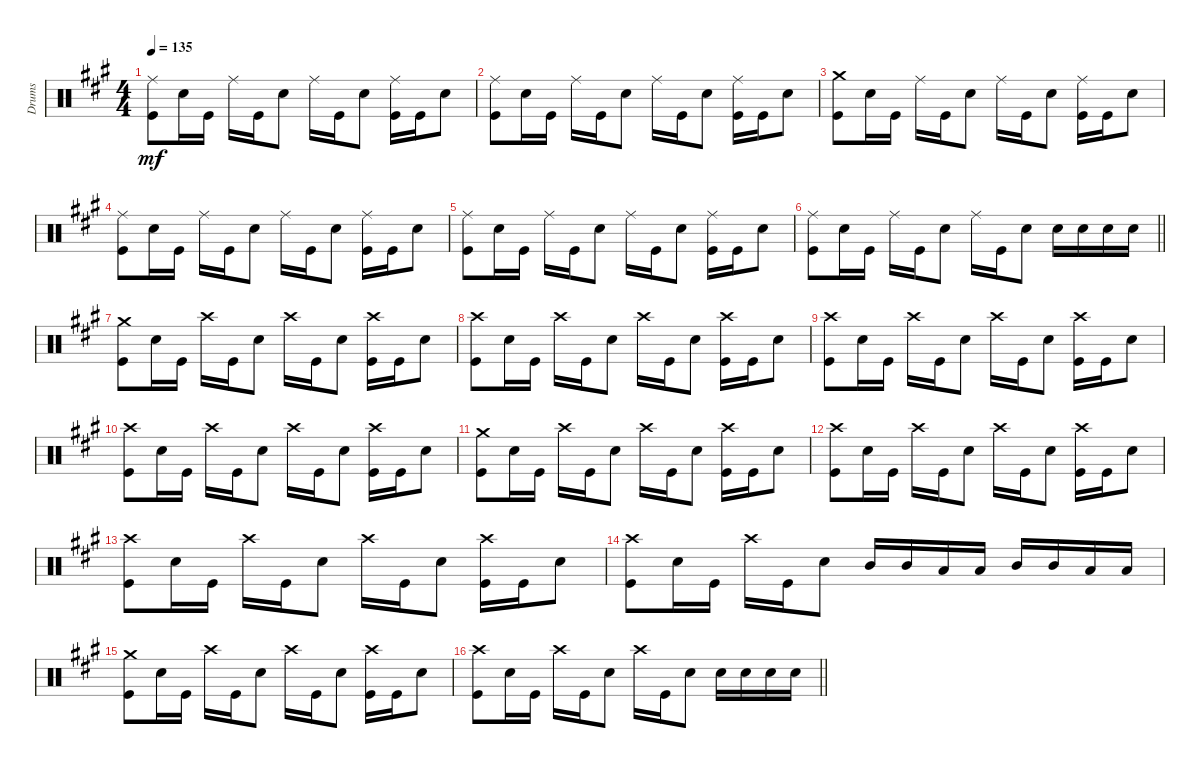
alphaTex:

\track ("Drums" "Drums") {instrument percussion}
\staff {score}
\articulation defaults
\ts (4 4)
\tempo 135
\clef neutral
\ks a
("Kick (hit)" "Ride (middle)").8{dy mf} "Snare (hit) 2".16 "Kick (hit)".16 "Ride (middle)".16 "Kick (hit)".16 "Snare (hit) 2".8 "Ride (middle)".16 "Kick (hit)".16 "Snare (hit) 2".8 ("Kick (hit)" "Ride (middle)").16 "Kick (hit)".16 "Snare (hit) 2".8 |
("Kick (hit)" "Ride (middle)").8 "Snare (hit) 2".16 "Kick (hit)".16 "Ride (middle)".16 "Kick (hit)".16 "Snare (hit) 2".8 "Ride (middle)".16 "Kick (hit)".16 "Snare (hit) 2".8 ("Kick (hit)" "Ride (middle)").16 "Kick (hit)".16 "Snare (hit) 2".8 |
("Kick (hit)" "Crash medium (hit)").8 "Snare (hit) 2".16 "Kick (hit)".16 "Ride (middle)".16 "Kick (hit)".16 "Snare (hit) 2".8 "Ride (middle)".16 "Kick (hit)".16 "Snare (hit) 2".8 ("Kick (hit)" "Ride (middle)").16 "Kick (hit)".16 "Snare (hit) 2".8 |
("Kick (hit)" "Ride (middle)").8 "Snare (hit) 2".16 "Kick (hit)".16 "Ride (middle)".16 "Kick (hit)".16 "Snare (hit) 2".8 "Ride (middle)".16 "Kick (hit)".16 "Snare (hit) 2".8 ("Kick (hit)" "Ride (middle)").16 "Kick (hit)".16 "Snare (hit) 2".8 |
("Kick (hit)" "Ride (middle)").8 "Snare (hit) 2".16 "Kick (hit)".16 "Ride (middle)".16 "Kick (hit)".16 "Snare (hit) 2".8 "Ride (middle)".16 "Kick (hit)".16 "Snare (hit) 2".8 ("Kick (hit)" "Ride (middle)").16 "Kick (hit)".16 "Snare (hit) 2".8 |
\barLineRight lightlight
("Kick (hit)" "Ride (middle)").8 "Snare (hit) 2".16 "Kick (hit)".16 "Ride (middle)".16 "Kick (hit)".16 "Snare (hit) 2".8 "Ride (middle)".16 "Kick (hit)".16 "Snare (hit) 2".8 "Snare (hit) 2".16 "Snare (hit) 2".16 "Snare (hit) 2".16 "Snare (hit) 2".16 |
("Kick (hit)" "Crash medium (hit)").8 "Snare (hit) 2".16 "Kick (hit)".16 "Crash high (hit)".16 "Kick (hit)".16 "Snare (hit) 2".8 "Crash high (hit)".16 "Kick (hit)".16 "Snare (hit) 2".8 ("Kick (hit)" "Crash high (hit)").16 "Kick (hit)".16 "Snare (hit) 2".8 |
("Kick (hit)" "Crash high (hit)").8 "Snare (hit) 2".16 "Kick (hit)".16 "Crash high (hit)".16 "Kick (hit)".16 "Snare (hit) 2".8 "Crash high (hit)".16 "Kick (hit)".16 "Snare (hit) 2".8 ("Kick (hit)" "Crash high (hit)").16 "Kick (hit)".16 "Snare (hit) 2".8 |
("Kick (hit)" "Crash high (hit)").8 "Snare (hit) 2".16 "Kick (hit)".16 "Crash high (hit)".16 "Kick (hit)".16 "Snare (hit) 2".8 "Crash high (hit)".16 "Kick (hit)".16 "Snare (hit) 2".8 ("Kick (hit)" "Crash high (hit)").16 "Kick (hit)".16 "Snare (hit) 2".8 |
("Kick (hit)" "Crash high (hit)").8 "Snare (hit) 2".16 "Kick (hit)".16 "Crash high (hit)".16 "Kick (hit)".16 "Snare (hit) 2".8 "Crash high (hit)".16 "Kick (hit)".16 "Snare (hit) 2".8 ("Kick (hit)" "Crash high (hit)").16 "Kick (hit)".16 "Snare (hit) 2".8 |
("Kick (hit)" "Crash medium (hit)").8 "Snare (hit) 2".16 "Kick (hit)".16 "Crash high (hit)".16 "Kick (hit)".16 "Snare (hit) 2".8 "Crash high (hit)".16 "Kick (hit)".16 "Snare (hit) 2".8 ("Kick (hit)" "Crash high (hit)").16 "Kick (hit)".16 "Snare (hit) 2".8 |
("Kick (hit)" "Crash high (hit)").8 "Snare (hit) 2".16 "Kick (hit)".16 "Crash high (hit)".16 "Kick (hit)".16 "Snare (hit) 2".8 "Crash high (hit)".16 "Kick (hit)".16 "Snare (hit) 2".8 ("Kick (hit)" "Crash high (hit)").16 "Kick (hit)".16 "Snare (hit) 2".8 |
("Kick (hit)" "Crash high (hit)").8 "Snare (hit) 2".16 "Kick (hit)".16 "Crash high (hit)".16 "Kick (hit)".16 "Snare (hit) 2".8 "Crash high (hit)".16 "Kick (hit)".16 "Snare (hit) 2".8 ("Kick (hit)" "Crash high (hit)").16 "Kick (hit)".16 "Snare (hit) 2".8 |
("Kick (hit)" "Crash high (hit)").8 "Snare (hit) 2".16 "Kick (hit)".16 "Crash high (hit)".16 "Kick (hit)".16 "Snare (hit) 2".8 "Mid Tom (hit)".16 "Mid Tom (hit)".16 "Low Tom (hit)".16 "Low Tom (hit)".16 "Mid Tom (hit)".16 "Mid Tom (hit)".16 "Low Tom (hit)".16 "Low Tom (hit)".16 |
("Kick (hit)" "Crash medium (hit)").8 "Snare (hit) 2".16 "Kick (hit)".16 "Crash high (hit)".16 "Kick (hit)".16 "Snare (hit) 2".8 "Crash high (hit)".16 "Kick (hit)".16 "Snare (hit) 2".8 ("Kick (hit)" "Crash high (hit)").16 "Kick (hit)".16 "Snare (hit) 2".8 |
\barLineRight lightlight
("Kick (hit)" "Crash high (hit)").8 "Snare (hit) 2".16 "Kick (hit)".16 "Crash high (hit)".16 "Kick (hit)".16 "Snare (hit) 2".8 "Crash high (hit)".16 "Kick (hit)".16 "Snare (hit) 2".8 "Snare (hit) 2".16 "Snare (hit) 2".16 "Snare (hit) 2".16 "Snare (hit) 2".16
